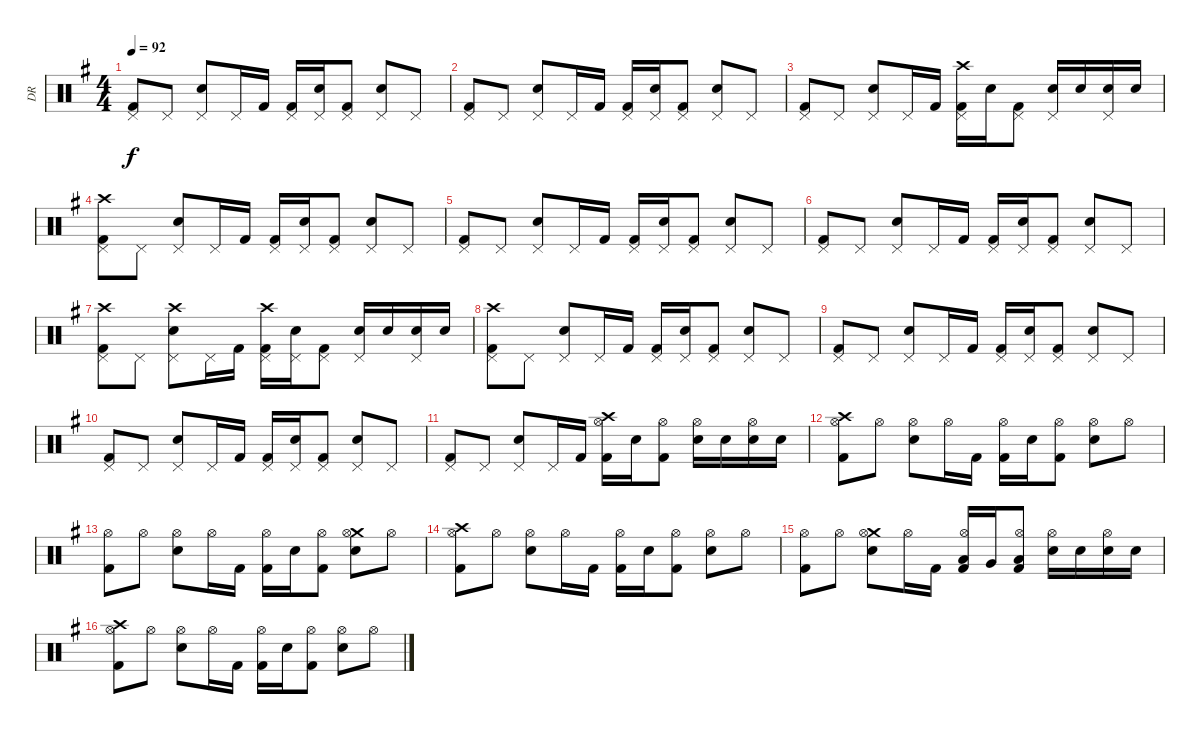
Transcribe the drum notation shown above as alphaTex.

\track ("DR" "DR") {instrument percussion}
\staff {score}
\articulation defaults
\ts (4 4)
\tempo 92
\clef neutral
\ks g
("Pedal Hi-Hat (hit)" "Kick (hit) 2").8{dy f} "Pedal Hi-Hat (hit)".8 ("Pedal Hi-Hat (hit)" "Electric Snare (hit)").8 "Pedal Hi-Hat (hit)".16 "Kick (hit) 2".16 ("Pedal Hi-Hat (hit)" "Kick (hit) 2").16 ("Pedal Hi-Hat (hit)" "Electric Snare (hit)").16 ("Pedal Hi-Hat (hit)" "Kick (hit) 2").8 ("Pedal Hi-Hat (hit)" "Electric Snare (hit)").8 "Pedal Hi-Hat (hit)".8 |
("Pedal Hi-Hat (hit)" "Kick (hit) 2").8 "Pedal Hi-Hat (hit)".8 ("Pedal Hi-Hat (hit)" "Electric Snare (hit)").8 "Pedal Hi-Hat (hit)".16 "Kick (hit) 2".16 ("Pedal Hi-Hat (hit)" "Kick (hit) 2").16 ("Pedal Hi-Hat (hit)" "Electric Snare (hit)").16 ("Pedal Hi-Hat (hit)" "Kick (hit) 2").8 ("Pedal Hi-Hat (hit)" "Electric Snare (hit)").8 "Pedal Hi-Hat (hit)".8 |
("Pedal Hi-Hat (hit)" "Kick (hit) 2").8 "Pedal Hi-Hat (hit)".8 ("Pedal Hi-Hat (hit)" "Electric Snare (hit)").8 "Pedal Hi-Hat (hit)".16 "Kick (hit) 2".16 ("Crash high (hit)" "Pedal Hi-Hat (hit)" "Kick (hit) 2").16 "Electric Snare (hit)".16 ("Pedal Hi-Hat (hit)" "Kick (hit) 2").8 ("Pedal Hi-Hat (hit)" "Electric Snare (hit)").16 "Electric Snare (hit)".16 ("Pedal Hi-Hat (hit)" "Electric Snare (hit)").16 "Electric Snare (hit)".16 |
("Crash high (hit)" "Pedal Hi-Hat (hit)" "Kick (hit) 2").8 "Pedal Hi-Hat (hit)".8 ("Pedal Hi-Hat (hit)" "Electric Snare (hit)").8 "Pedal Hi-Hat (hit)".16 "Kick (hit) 2".16 ("Pedal Hi-Hat (hit)" "Kick (hit) 2").16 ("Pedal Hi-Hat (hit)" "Electric Snare (hit)").16 ("Pedal Hi-Hat (hit)" "Kick (hit) 2").8 ("Pedal Hi-Hat (hit)" "Electric Snare (hit)").8 "Pedal Hi-Hat (hit)".8 |
("Pedal Hi-Hat (hit)" "Kick (hit) 2").8 "Pedal Hi-Hat (hit)".8 ("Pedal Hi-Hat (hit)" "Electric Snare (hit)").8 "Pedal Hi-Hat (hit)".16 "Kick (hit) 2".16 ("Pedal Hi-Hat (hit)" "Kick (hit) 2").16 ("Pedal Hi-Hat (hit)" "Electric Snare (hit)").16 ("Pedal Hi-Hat (hit)" "Kick (hit) 2").8 ("Pedal Hi-Hat (hit)" "Electric Snare (hit)").8 "Pedal Hi-Hat (hit)".8 |
("Pedal Hi-Hat (hit)" "Kick (hit) 2").8 "Pedal Hi-Hat (hit)".8 ("Pedal Hi-Hat (hit)" "Electric Snare (hit)").8 "Pedal Hi-Hat (hit)".16 "Kick (hit) 2".16 ("Pedal Hi-Hat (hit)" "Kick (hit) 2").16 ("Pedal Hi-Hat (hit)" "Electric Snare (hit)").16 ("Pedal Hi-Hat (hit)" "Kick (hit) 2").8 ("Pedal Hi-Hat (hit)" "Electric Snare (hit)").8 "Pedal Hi-Hat (hit)".8 |
("Crash high (hit)" "Pedal Hi-Hat (hit)" "Kick (hit) 2").8 "Pedal Hi-Hat (hit)".8 ("Crash high (hit)" "Pedal Hi-Hat (hit)" "Electric Snare (hit)").8 "Pedal Hi-Hat (hit)".16 "Kick (hit) 2".16 ("Crash high (hit)" "Pedal Hi-Hat (hit)" "Kick (hit) 2").16 ("Pedal Hi-Hat (hit)" "Electric Snare (hit)").16 ("Pedal Hi-Hat (hit)" "Kick (hit) 2").8 ("Pedal Hi-Hat (hit)" "Electric Snare (hit)").16 "Electric Snare (hit)".16 ("Pedal Hi-Hat (hit)" "Electric Snare (hit)").16 "Electric Snare (hit)".16 |
("Crash high (hit)" "Pedal Hi-Hat (hit)" "Kick (hit) 2").8 "Pedal Hi-Hat (hit)".8 ("Pedal Hi-Hat (hit)" "Electric Snare (hit)").8 "Pedal Hi-Hat (hit)".16 "Kick (hit) 2".16 ("Pedal Hi-Hat (hit)" "Kick (hit) 2").16 ("Pedal Hi-Hat (hit)" "Electric Snare (hit)").16 ("Pedal Hi-Hat (hit)" "Kick (hit) 2").8 ("Pedal Hi-Hat (hit)" "Electric Snare (hit)").8 "Pedal Hi-Hat (hit)".8 |
("Pedal Hi-Hat (hit)" "Kick (hit) 2").8 "Pedal Hi-Hat (hit)".8 ("Pedal Hi-Hat (hit)" "Electric Snare (hit)").8 "Pedal Hi-Hat (hit)".16 "Kick (hit) 2".16 ("Pedal Hi-Hat (hit)" "Kick (hit) 2").16 ("Pedal Hi-Hat (hit)" "Electric Snare (hit)").16 ("Pedal Hi-Hat (hit)" "Kick (hit) 2").8 ("Pedal Hi-Hat (hit)" "Electric Snare (hit)").8 "Pedal Hi-Hat (hit)".8 |
("Pedal Hi-Hat (hit)" "Kick (hit) 2").8 "Pedal Hi-Hat (hit)".8 ("Pedal Hi-Hat (hit)" "Electric Snare (hit)").8 "Pedal Hi-Hat (hit)".16 "Kick (hit) 2".16 ("Pedal Hi-Hat (hit)" "Kick (hit) 2").16 ("Pedal Hi-Hat (hit)" "Electric Snare (hit)").16 ("Pedal Hi-Hat (hit)" "Kick (hit) 2").8 ("Pedal Hi-Hat (hit)" "Electric Snare (hit)").8 "Pedal Hi-Hat (hit)".8 |
("Pedal Hi-Hat (hit)" "Kick (hit) 2").8 "Pedal Hi-Hat (hit)".8 ("Pedal Hi-Hat (hit)" "Electric Snare (hit)").8 "Pedal Hi-Hat (hit)".16 "Kick (hit) 2".16 ("Crash high (hit)" "Hi-Hat (open)" "Kick (hit) 2").16 "Electric Snare (hit)".16 ("Hi-Hat (open)" "Kick (hit) 2").8 ("Hi-Hat (open)" "Electric Snare (hit)").16 "Electric Snare (hit)".16 ("Hi-Hat (open)" "Electric Snare (hit)").16 "Electric Snare (hit)".16 |
("Crash high (hit)" "Hi-Hat (open)" "Kick (hit) 2").8 "Hi-Hat (open)".8 ("Hi-Hat (open)" "Electric Snare (hit)").8 "Hi-Hat (open)".16 "Kick (hit) 2".16 ("Hi-Hat (open)" "Kick (hit) 2").16 "Electric Snare (hit)".16 ("Hi-Hat (open)" "Kick (hit) 2").8 ("Hi-Hat (open)" "Electric Snare (hit)").8 "Hi-Hat (open)".8 |
("Hi-Hat (open)" "Kick (hit) 2").8 "Hi-Hat (open)".8 ("Hi-Hat (open)" "Electric Snare (hit)").8 "Hi-Hat (open)".16 "Kick (hit) 2".16 ("Hi-Hat (open)" "Kick (hit) 2").16 "Electric Snare (hit)".16 ("Hi-Hat (open)" "Kick (hit) 2").8 ("Crash medium (hit)" "Hi-Hat (open)" "Electric Snare (hit)").8 "Hi-Hat (open)".8 |
("Crash high (hit)" "Hi-Hat (open)" "Kick (hit) 2").8 "Hi-Hat (open)".8 ("Hi-Hat (open)" "Electric Snare (hit)").8 "Hi-Hat (open)".16 "Kick (hit) 2".16 ("Hi-Hat (open)" "Kick (hit) 2").16 "Electric Snare (hit)".16 ("Hi-Hat (open)" "Kick (hit) 2").8 ("Hi-Hat (open)" "Electric Snare (hit)").8 "Hi-Hat (open)".8 |
("Hi-Hat (open)" "Kick (hit) 2").8 "Hi-Hat (open)".8 ("Crash medium (hit)" "Hi-Hat (open)" "Electric Snare (hit)").8 "Hi-Hat (open)".16 "Kick (hit) 2".16 ("Hi-Hat (open)" "Low Tom (hit)" "Kick (hit) 2").16 "Very Low Tom (hit)".16 ("Hi-Hat (open)" "Low Floor Tom (hit)" "Kick (hit) 2").8 ("Hi-Hat (open)" "Electric Snare (hit)").16 "Electric Snare (hit)".16 ("Hi-Hat (open)" "Electric Snare (hit)").16 "Electric Snare (hit)".16 |
("Crash high (hit)" "Hi-Hat (open)" "Kick (hit) 2").8 "Hi-Hat (open)".8 ("Hi-Hat (open)" "Electric Snare (hit)").8 "Hi-Hat (open)".16 "Kick (hit) 2".16 ("Hi-Hat (open)" "Kick (hit) 2").16 "Electric Snare (hit)".16 ("Hi-Hat (open)" "Kick (hit) 2").8 ("Hi-Hat (open)" "Electric Snare (hit)").8 "Hi-Hat (open)".8
